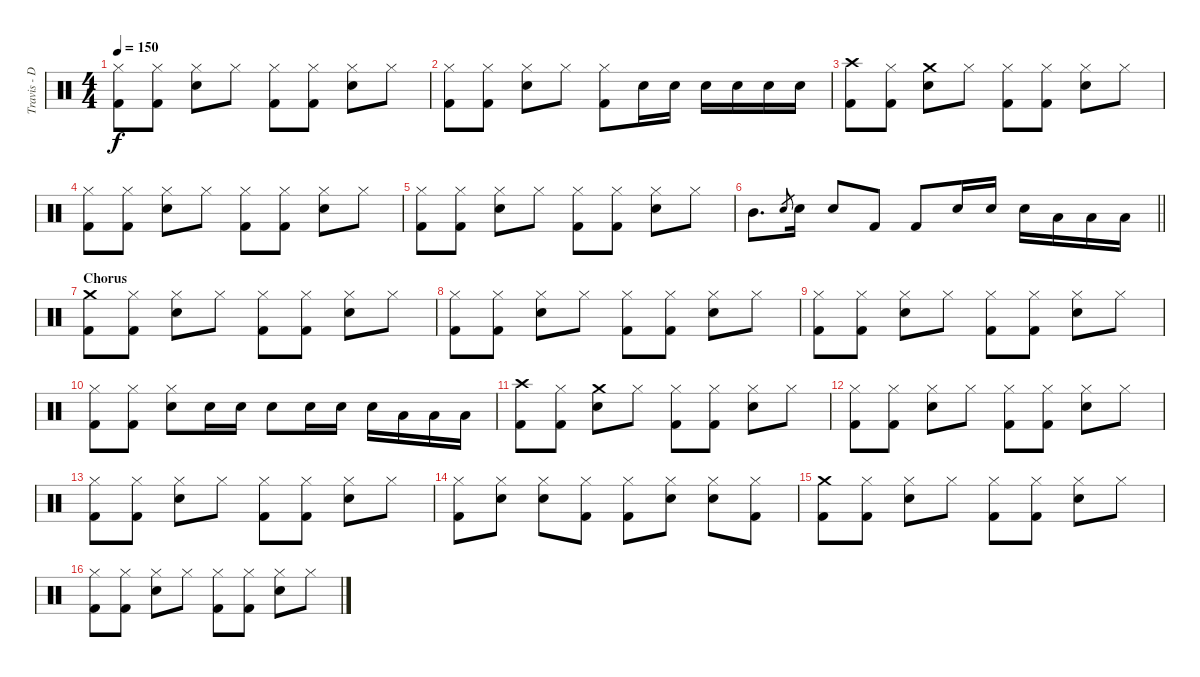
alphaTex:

\track ("Travis - Drums" "Travis - D") {instrument percussion}
\staff {score}
\articulation defaults
\ts (4 4)
\tempo 150
\clef neutral
\ks c
("Hi-Hat (closed)" "Kick (hit) 2").8{dy f} ("Hi-Hat (closed)" "Kick (hit) 2").8 ("Hi-Hat (closed)" "Electric Snare (hit)").8 "Hi-Hat (closed)".8 ("Hi-Hat (closed)" "Kick (hit) 2").8 ("Hi-Hat (closed)" "Kick (hit) 2").8 ("Hi-Hat (closed)" "Electric Snare (hit)").8 "Hi-Hat (closed)".8 |
("Hi-Hat (closed)" "Kick (hit) 2").8 ("Hi-Hat (closed)" "Kick (hit) 2").8 ("Hi-Hat (closed)" "Electric Snare (hit)").8 "Hi-Hat (closed)".8 ("Hi-Hat (closed)" "Kick (hit) 2").8 "Electric Snare (hit)".16 "Electric Snare (hit)".16 "Electric Snare (hit)".16 "Electric Snare (hit)".16 "Electric Snare (hit)".16 "Electric Snare (hit)".16 |
("Crash high (hit)" "Kick (hit) 2").8 ("Hi-Hat (closed)" "Kick (hit) 2").8 ("Crash medium (hit)" "Electric Snare (hit)").8 "Hi-Hat (closed)".8 ("Hi-Hat (closed)" "Kick (hit) 2").8 ("Hi-Hat (closed)" "Kick (hit) 2").8 ("Hi-Hat (closed)" "Electric Snare (hit)").8 "Hi-Hat (closed)".8 |
("Hi-Hat (closed)" "Kick (hit) 2").8 ("Hi-Hat (closed)" "Kick (hit) 2").8 ("Hi-Hat (closed)" "Electric Snare (hit)").8 "Hi-Hat (closed)".8 ("Hi-Hat (closed)" "Kick (hit) 2").8 ("Hi-Hat (closed)" "Kick (hit) 2").8 ("Hi-Hat (closed)" "Electric Snare (hit)").8 "Hi-Hat (closed)".8 |
("Hi-Hat (closed)" "Kick (hit) 2").8 ("Hi-Hat (closed)" "Kick (hit) 2").8 ("Hi-Hat (closed)" "Electric Snare (hit)").8 "Hi-Hat (closed)".8 ("Hi-Hat (closed)" "Kick (hit) 2").8 ("Hi-Hat (closed)" "Kick (hit) 2").8 ("Hi-Hat (closed)" "Electric Snare (hit)").8 "Hi-Hat (closed)".8 |
\barLineRight lightlight "Mid Tom (hit)".8{d} "Electric Snare (hit)".8{gr} "Electric Snare (hit)".16 "Electric Snare (hit)".8 "Kick (hit) 2".8 "Kick (hit) 2".8 "Electric Snare (hit)".16 "Electric Snare (hit)".16 "Electric Snare (hit)".16 "Low Tom (hit)".16 "Low Tom (hit)".16 "Low Tom (hit)".16
|
\section ("" "Chorus")
("Crash medium (hit)" "Kick (hit) 2").8 ("Hi-Hat (closed)" "Kick (hit) 2").8 ("Hi-Hat (closed)" "Electric Snare (hit)").8 "Hi-Hat (closed)".8 ("Hi-Hat (closed)" "Kick (hit) 2").8 ("Hi-Hat (closed)" "Kick (hit) 2").8 ("Hi-Hat (closed)" "Electric Snare (hit)").8 "Hi-Hat (closed)".8 |
("Hi-Hat (closed)" "Kick (hit) 2").8 ("Hi-Hat (closed)" "Kick (hit) 2").8 ("Hi-Hat (closed)" "Electric Snare (hit)").8 "Hi-Hat (closed)".8 ("Hi-Hat (closed)" "Kick (hit) 2").8 ("Hi-Hat (closed)" "Kick (hit) 2").8 ("Hi-Hat (closed)" "Electric Snare (hit)").8 "Hi-Hat (closed)".8 |
("Hi-Hat (closed)" "Kick (hit) 2").8 ("Hi-Hat (closed)" "Kick (hit) 2").8 ("Hi-Hat (closed)" "Electric Snare (hit)").8 "Hi-Hat (closed)".8 ("Hi-Hat (closed)" "Kick (hit) 2").8 ("Hi-Hat (closed)" "Kick (hit) 2").8 ("Hi-Hat (closed)" "Electric Snare (hit)").8 "Hi-Hat (closed)".8 |
("Hi-Hat (closed)" "Kick (hit) 2").8 ("Hi-Hat (closed)" "Kick (hit) 2").8 ("Hi-Hat (closed)" "Electric Snare (hit)").8 "Electric Snare (hit)".16 "Electric Snare (hit)".16 "Electric Snare (hit)".8 "Electric Snare (hit)".16 "Electric Snare (hit)".16 "Electric Snare (hit)".16 "Low Tom (hit)".16 "Low Tom (hit)".16 "Low Tom (hit)".16 |
("Crash high (hit)" "Kick (hit) 2").8 ("Hi-Hat (closed)" "Kick (hit) 2").8 ("Crash medium (hit)" "Electric Snare (hit)").8 "Hi-Hat (closed)".8 ("Hi-Hat (closed)" "Kick (hit) 2").8 ("Hi-Hat (closed)" "Kick (hit) 2").8 ("Hi-Hat (closed)" "Electric Snare (hit)").8 "Hi-Hat (closed)".8 |
("Hi-Hat (closed)" "Kick (hit) 2").8 ("Hi-Hat (closed)" "Kick (hit) 2").8 ("Hi-Hat (closed)" "Electric Snare (hit)").8 "Hi-Hat (closed)".8 ("Hi-Hat (closed)" "Kick (hit) 2").8 ("Hi-Hat (closed)" "Kick (hit) 2").8 ("Hi-Hat (closed)" "Electric Snare (hit)").8 "Hi-Hat (closed)".8 |
("Hi-Hat (closed)" "Kick (hit) 2").8 ("Hi-Hat (closed)" "Kick (hit) 2").8 ("Hi-Hat (closed)" "Electric Snare (hit)").8 "Hi-Hat (closed)".8 ("Hi-Hat (closed)" "Kick (hit) 2").8 ("Hi-Hat (closed)" "Kick (hit) 2").8 ("Hi-Hat (closed)" "Electric Snare (hit)").8 "Hi-Hat (closed)".8 |
("Hi-Hat (closed)" "Kick (hit) 2").8 ("Hi-Hat (closed)" "Electric Snare (hit)").8 ("Hi-Hat (closed)" "Electric Snare (hit)").8 ("Hi-Hat (closed)" "Kick (hit) 2").8 ("Hi-Hat (closed)" "Kick (hit) 2").8 ("Hi-Hat (closed)" "Electric Snare (hit)").8 ("Hi-Hat (closed)" "Electric Snare (hit)").8 ("Hi-Hat (closed)" "Kick (hit) 2").8 |
("Crash medium (hit)" "Kick (hit) 2").8 ("Hi-Hat (closed)" "Kick (hit) 2").8 ("Hi-Hat (closed)" "Electric Snare (hit)").8 "Hi-Hat (closed)".8 ("Hi-Hat (closed)" "Kick (hit) 2").8 ("Hi-Hat (closed)" "Kick (hit) 2").8 ("Hi-Hat (closed)" "Electric Snare (hit)").8 "Hi-Hat (closed)".8 |
("Hi-Hat (closed)" "Kick (hit) 2").8 ("Hi-Hat (closed)" "Kick (hit) 2").8 ("Hi-Hat (closed)" "Electric Snare (hit)").8 "Hi-Hat (closed)".8 ("Hi-Hat (closed)" "Kick (hit) 2").8 ("Hi-Hat (closed)" "Kick (hit) 2").8 ("Hi-Hat (closed)" "Electric Snare (hit)").8 "Hi-Hat (closed)".8
